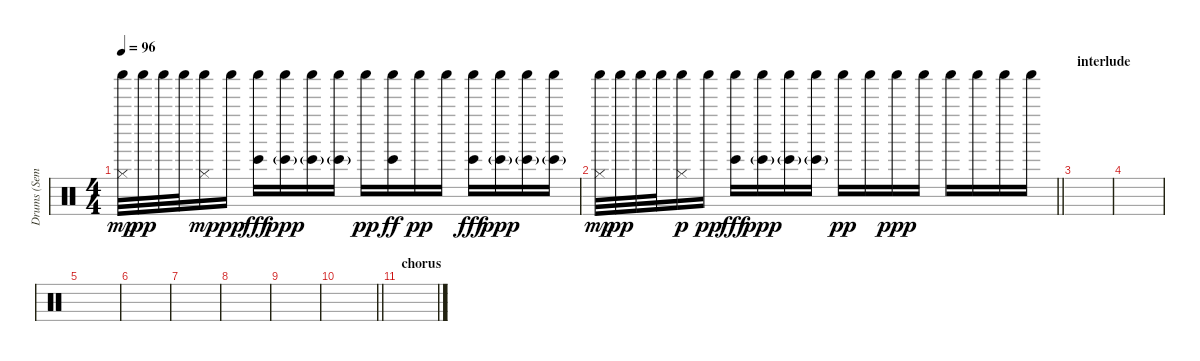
\track ("Drums (Semple)" "Drums (Sem") {instrument percussion}
\staff {score}
\articulation defaults
\ts (4 4)
\tempo 96
\clef neutral
\ks c
("Shaker (hit)" "Hi-Hat (closed)").32{dy mp} "Shaker (hit)".32{dy pp} "Shaker (hit)".32 "Shaker (hit)".32 ("Shaker (hit)" "Hi-Hat (closed)").16{dy mp} "Shaker (hit)".16{dy pp} ("Shaker (hit)" "Bongo High (hit)").16{dy fff} ("Shaker (hit)" "Bongo High (hit)"{g}).16{dy ppp} ("Shaker (hit)" "Bongo High (hit)"{g}).16 ("Shaker (hit)" "Bongo High (hit)"{g}).16 "Shaker (hit)".16{dy pp} ("Shaker (hit)" "Bongo High (hit)").16{dy ff} "Shaker (hit)".16{dy pp} "Shaker (hit)".16 ("Shaker (hit)" "Bongo High (hit)").16{dy fff} ("Shaker (hit)" "Bongo High (hit)"{g}).16{dy ppp} ("Shaker (hit)" "Bongo High (hit)"{g}).16 ("Shaker (hit)" "Bongo High (hit)"{g}).16 |
\barLineRight lightlight
("Shaker (hit)" "Hi-Hat (closed)").32{dy mp} "Shaker (hit)".32{dy pp} "Shaker (hit)".32 "Shaker (hit)".32 ("Shaker (hit)" "Hi-Hat (closed)").16{dy p} "Shaker (hit)".16{dy pp} ("Shaker (hit)" "Bongo High (hit)").16{dy fff} ("Shaker (hit)" "Bongo High (hit)"{g}).16{dy ppp} ("Shaker (hit)" "Bongo High (hit)"{g}).16 ("Shaker (hit)" "Bongo High (hit)"{g}).16 "Shaker (hit)".16{dy pp} "Shaker (hit)".16 "Shaker (hit)".16{dy ppp} "Shaker (hit)".16 "Shaker (hit)".16 "Shaker (hit)".16 "Shaker (hit)".16 "Shaker (hit)".16 |
\section ("" "interlude")
|
|
|
|
|
|
|
\barLineRight lightlight
|
\section ("" "chorus")
